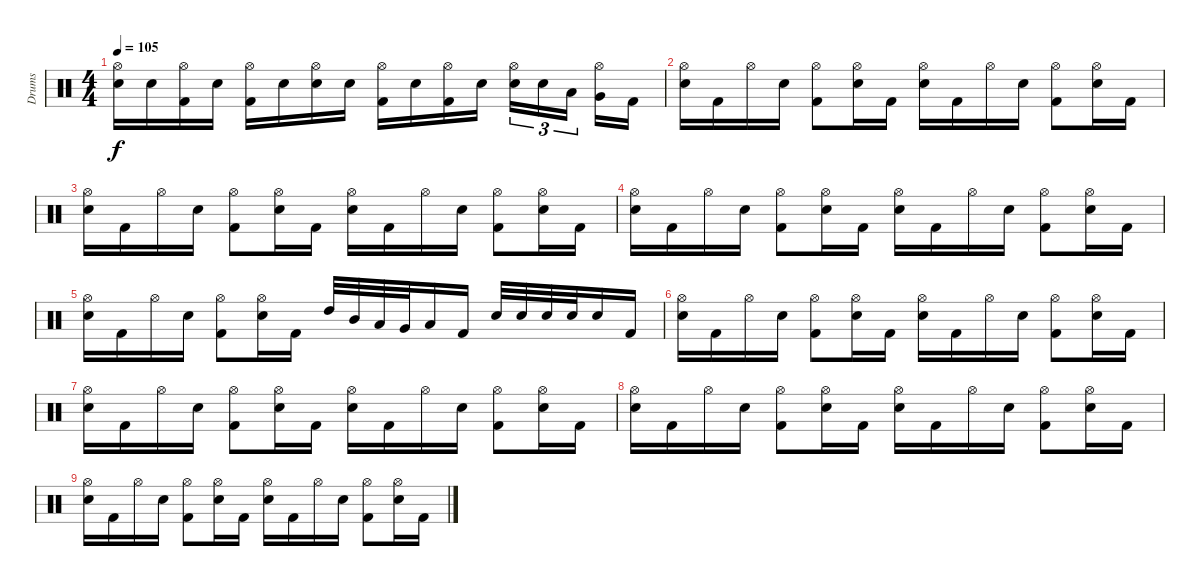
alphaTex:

\track ("Drums" "Drums") {instrument percussion}
\staff {score}
\articulation defaults
\ts (4 4)
\tempo 105
\clef neutral
\ks c
("Hi-Hat (open)" "Snare (hit) 2").16{dy f} "Snare (hit) 2".16 ("Hi-Hat (open)" "Kick (hit) 2").16 "Snare (hit) 2".16 ("Hi-Hat (open)" "Kick (hit) 2").16 "Snare (hit) 2".16 ("Hi-Hat (open)" "Snare (hit) 2").16 "Snare (hit) 2".16 ("Hi-Hat (open)" "Kick (hit) 2").16 "Snare (hit) 2".16 ("Hi-Hat (open)" "Kick (hit) 2").16 "Snare (hit) 2".16 ("Hi-Hat (open)" "Snare (hit) 2").16{tu (3 2)} "Snare (hit) 2".16{tu (3 2)} "Low Tom (hit)".16{tu (3 2) beam splitsecondary} ("Hi-Hat (open)" "Very Low Tom (hit)").16 "Kick (hit) 2".16 |
("Hi-Hat (open)" "Snare (hit) 2").16 "Kick (hit) 2".16 "Hi-Hat (open)".16 "Snare (hit) 2".16 ("Hi-Hat (open)" "Kick (hit) 2").8 ("Hi-Hat (open)" "Snare (hit) 2").16 "Kick (hit) 2".16 ("Hi-Hat (open)" "Snare (hit) 2").16 "Kick (hit) 2".16 "Hi-Hat (open)".16 "Snare (hit) 2".16 ("Hi-Hat (open)" "Kick (hit) 2").8 ("Hi-Hat (open)" "Snare (hit) 2").16 "Kick (hit) 2".16 |
("Hi-Hat (open)" "Snare (hit) 2").16 "Kick (hit) 2".16 "Hi-Hat (open)".16 "Snare (hit) 2".16 ("Hi-Hat (open)" "Kick (hit) 2").8 ("Hi-Hat (open)" "Snare (hit) 2").16 "Kick (hit) 2".16 ("Hi-Hat (open)" "Snare (hit) 2").16 "Kick (hit) 2".16 "Hi-Hat (open)".16 "Snare (hit) 2".16 ("Hi-Hat (open)" "Kick (hit) 2").8 ("Hi-Hat (open)" "Snare (hit) 2").16 "Kick (hit) 2".16 |
("Hi-Hat (open)" "Snare (hit) 2").16 "Kick (hit) 2".16 "Hi-Hat (open)".16 "Snare (hit) 2".16 ("Hi-Hat (open)" "Kick (hit) 2").8 ("Hi-Hat (open)" "Snare (hit) 2").16 "Kick (hit) 2".16 ("Hi-Hat (open)" "Snare (hit) 2").16 "Kick (hit) 2".16 "Hi-Hat (open)".16 "Snare (hit) 2".16 ("Hi-Hat (open)" "Kick (hit) 2").8 ("Hi-Hat (open)" "Snare (hit) 2").16 "Kick (hit) 2".16 |
("Hi-Hat (open)" "Snare (hit) 2").16 "Kick (hit) 2".16 "Hi-Hat (open)".16 "Snare (hit) 2".16 ("Hi-Hat (open)" "Kick (hit) 2").8 ("Hi-Hat (open)" "Snare (hit) 2").16 "Kick (hit) 2".16 "High Tom (hit)".32 "Mid Tom (hit)".32 "Low Tom (hit)".32 "Very Low Tom (hit)".32 "Low Floor Tom (hit)".16 "Kick (hit) 2".16 "Snare (hit) 2".32 "Snare (hit) 2".32 "Snare (hit) 2".32 "Snare (hit) 2".32 "Snare (hit) 2".16 "Kick (hit) 2".16 |
("Hi-Hat (open)" "Snare (hit) 2").16 "Kick (hit) 2".16 "Hi-Hat (open)".16 "Snare (hit) 2".16 ("Hi-Hat (open)" "Kick (hit) 2").8 ("Hi-Hat (open)" "Snare (hit) 2").16 "Kick (hit) 2".16 ("Hi-Hat (open)" "Snare (hit) 2").16 "Kick (hit) 2".16 "Hi-Hat (open)".16 "Snare (hit) 2".16 ("Hi-Hat (open)" "Kick (hit) 2").8 ("Hi-Hat (open)" "Snare (hit) 2").16 "Kick (hit) 2".16 |
("Hi-Hat (open)" "Snare (hit) 2").16 "Kick (hit) 2".16 "Hi-Hat (open)".16 "Snare (hit) 2".16 ("Hi-Hat (open)" "Kick (hit) 2").8 ("Hi-Hat (open)" "Snare (hit) 2").16 "Kick (hit) 2".16 ("Hi-Hat (open)" "Snare (hit) 2").16 "Kick (hit) 2".16 "Hi-Hat (open)".16 "Snare (hit) 2".16 ("Hi-Hat (open)" "Kick (hit) 2").8 ("Hi-Hat (open)" "Snare (hit) 2").16 "Kick (hit) 2".16 |
("Hi-Hat (open)" "Snare (hit) 2").16 "Kick (hit) 2".16 "Hi-Hat (open)".16 "Snare (hit) 2".16 ("Hi-Hat (open)" "Kick (hit) 2").8 ("Hi-Hat (open)" "Snare (hit) 2").16 "Kick (hit) 2".16 ("Hi-Hat (open)" "Snare (hit) 2").16 "Kick (hit) 2".16 "Hi-Hat (open)".16 "Snare (hit) 2".16 ("Hi-Hat (open)" "Kick (hit) 2").8 ("Hi-Hat (open)" "Snare (hit) 2").16 "Kick (hit) 2".16 |
("Hi-Hat (open)" "Snare (hit) 2").16 "Kick (hit) 2".16 "Hi-Hat (open)".16 "Snare (hit) 2".16 ("Hi-Hat (open)" "Kick (hit) 2").8 ("Hi-Hat (open)" "Snare (hit) 2").16 "Kick (hit) 2".16 ("Hi-Hat (open)" "Snare (hit) 2").16 "Kick (hit) 2".16 "Hi-Hat (open)".16 "Snare (hit) 2".16 ("Hi-Hat (open)" "Kick (hit) 2").8 ("Hi-Hat (open)" "Snare (hit) 2").16 "Kick (hit) 2".16
